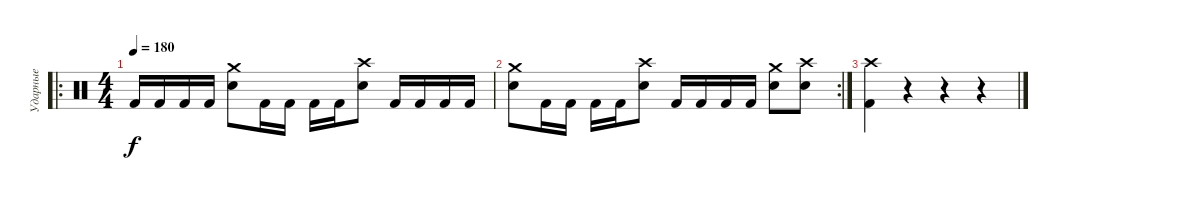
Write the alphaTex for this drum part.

\track ("Ударные" "Ударные") {instrument percussion}
\staff {score}
\articulation defaults
\ro
\ts (4 4)
\tempo 180
\clef neutral
\ks c "Kick (hit) 2".16{dy f} "Kick (hit) 2".16 "Kick (hit) 2".16 "Kick (hit) 2".16
("Crash medium (hit)" "Snare (hit) 2").8 "Kick (hit) 2".16 "Kick (hit) 2".16 "Kick (hit) 2".16 "Kick (hit) 2".16 ("Crash high (hit)" "Snare (hit) 2").8 "Kick (hit) 2".16 "Kick (hit) 2".16 "Kick (hit) 2".16 "Kick (hit) 2".16 |
\rc 2
("Crash medium (hit)" "Snare (hit) 2").8 "Kick (hit) 2".16 "Kick (hit) 2".16 "Kick (hit) 2".16 "Kick (hit) 2".16 ("Crash high (hit)" "Snare (hit) 2").8 "Kick (hit) 2".16 "Kick (hit) 2".16 "Kick (hit) 2".16 "Kick (hit) 2".16 ("Crash medium (hit)" "Snare (hit) 2").8 ("Crash high (hit)" "Snare (hit) 2").8 |
("Crash high (hit)" "Kick (hit) 2").4 r.4 r.4 r.4
